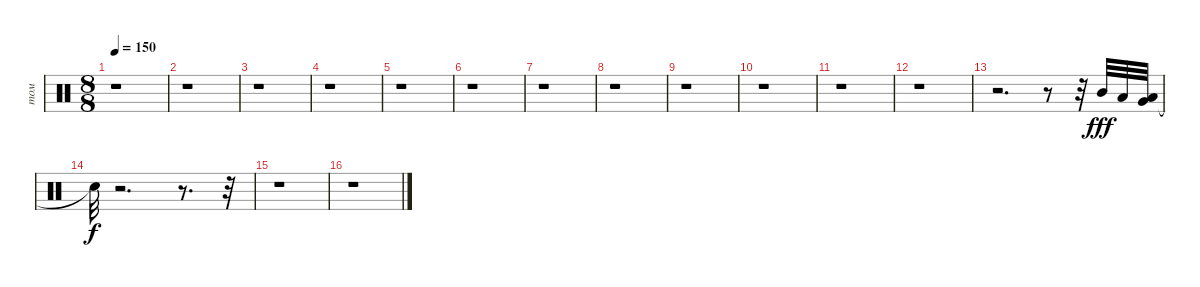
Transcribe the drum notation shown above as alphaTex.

\track ("том" "том") {instrument percussion}
\staff {score}
\articulation defaults
\ts (8 8)
\tempo 150
\clef neutral
\ks c
r.1{dy fff} |
r.1 |
r.1 |
r.1 |
r.1 |
r.1 |
r.1 |
r.1 |
r.1 |
r.1 |
r.1 |
r.1 |
r.2{d} r.8 r.32 "Mid Tom (hit)".32 "Low Tom (hit)".32 ("Very Low Tom (hit)" "Low Floor Tom (hit)").32 |
"Snare (hit)"{t}.32{dy f} r.2{d} r.8{d} r.32 |
r.1 |
r.1
